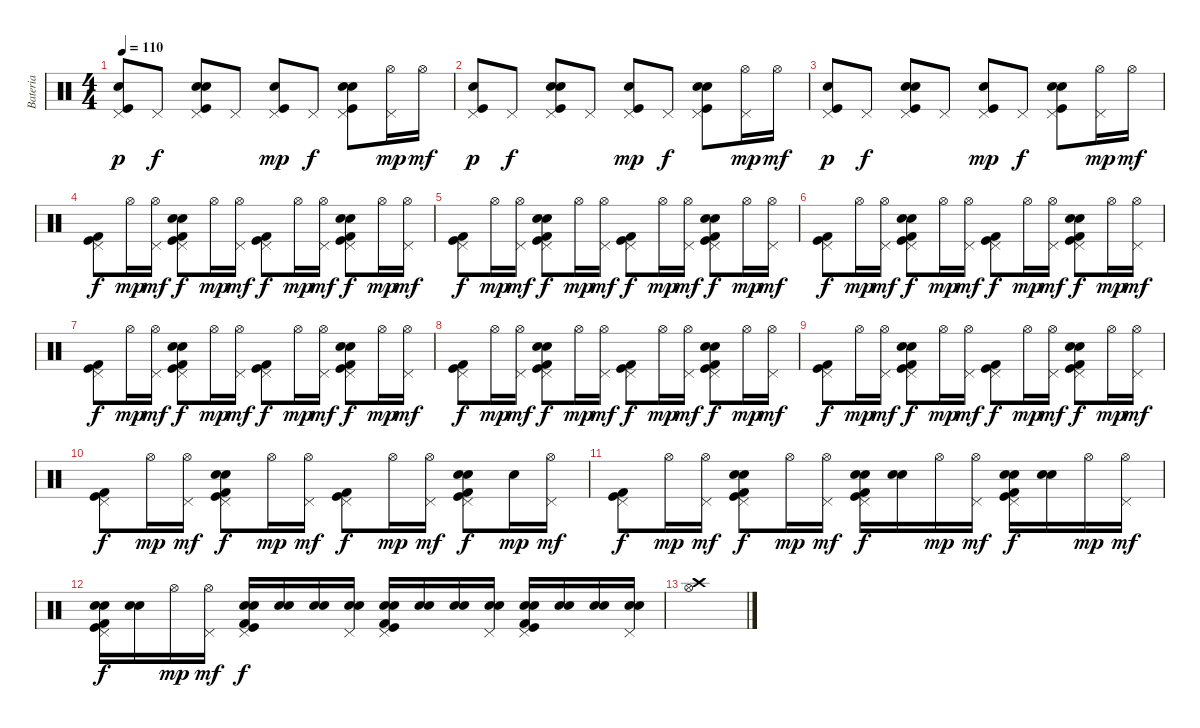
\track ("Bateria" "Bateria") {instrument percussion}
\staff {score}
\articulation defaults
\ts (4 4)
\tempo 110
\clef neutral
\ks c
("Kick (hit)" "Electric Snare (hit)" "Pedal Hi-Hat (hit)").8{dy p} "Pedal Hi-Hat (hit)".8{dy f} ("Kick (hit)" "Electric Snare (hit)" "Snare (hit) 2" "Pedal Hi-Hat (hit)").8 "Pedal Hi-Hat (hit)".8 ("Kick (hit)" "Electric Snare (hit)" "Pedal Hi-Hat (hit)").8{dy mp} "Pedal Hi-Hat (hit)".8{dy f} ("Kick (hit)" "Electric Snare (hit)" "Snare (hit) 2" "Pedal Hi-Hat (hit)").8 ("Pedal Hi-Hat (hit)" "Hi-Hat (open)").16{dy mp} "Hi-Hat (open)".16{dy mf} |
("Kick (hit)" "Electric Snare (hit)" "Pedal Hi-Hat (hit)").8{dy p} "Pedal Hi-Hat (hit)".8{dy f} ("Kick (hit)" "Electric Snare (hit)" "Snare (hit) 2" "Pedal Hi-Hat (hit)").8 "Pedal Hi-Hat (hit)".8 ("Kick (hit)" "Electric Snare (hit)" "Pedal Hi-Hat (hit)").8{dy mp} "Pedal Hi-Hat (hit)".8{dy f} ("Kick (hit)" "Electric Snare (hit)" "Snare (hit) 2" "Pedal Hi-Hat (hit)").8 ("Pedal Hi-Hat (hit)" "Hi-Hat (open)").16{dy mp} "Hi-Hat (open)".16{dy mf} |
("Kick (hit)" "Electric Snare (hit)" "Pedal Hi-Hat (hit)").8{dy p} "Pedal Hi-Hat (hit)".8{dy f} ("Kick (hit)" "Electric Snare (hit)" "Snare (hit) 2" "Pedal Hi-Hat (hit)").8 "Pedal Hi-Hat (hit)".8 ("Kick (hit)" "Electric Snare (hit)" "Pedal Hi-Hat (hit)").8{dy mp} "Pedal Hi-Hat (hit)".8{dy f} ("Kick (hit)" "Electric Snare (hit)" "Snare (hit) 2" "Pedal Hi-Hat (hit)").8 ("Pedal Hi-Hat (hit)" "Hi-Hat (open)").16{dy mp} "Hi-Hat (open)".16{dy mf} |
("Kick (hit)" "Kick (hit) 2" "Pedal Hi-Hat (hit)").8{dy f} "Hi-Hat (open)".16{dy mp} ("Hi-Hat (open)" "Pedal Hi-Hat (hit)").16{dy mf} ("Kick (hit) 2" "Kick (hit)" "Electric Snare (hit)" "Snare (hit) 2" "Pedal Hi-Hat (hit)").8{dy f} "Hi-Hat (open)".16{dy mp} ("Hi-Hat (open)" "Pedal Hi-Hat (hit)").16{dy mf} ("Kick (hit) 2" "Kick (hit)" "Pedal Hi-Hat (hit)").8{dy f} "Hi-Hat (open)".16{dy mp} ("Hi-Hat (open)" "Pedal Hi-Hat (hit)").16{dy mf} ("Kick (hit) 2" "Kick (hit)" "Electric Snare (hit)" "Snare (hit) 2" "Pedal Hi-Hat (hit)").8{dy f} "Hi-Hat (open)".16{dy mp} ("Hi-Hat (open)" "Pedal Hi-Hat (hit)").16{dy mf} |
("Kick (hit)" "Kick (hit) 2" "Pedal Hi-Hat (hit)").8{dy f} "Hi-Hat (open)".16{dy mp} ("Hi-Hat (open)" "Pedal Hi-Hat (hit)").16{dy mf} ("Kick (hit) 2" "Kick (hit)" "Electric Snare (hit)" "Snare (hit) 2" "Pedal Hi-Hat (hit)").8{dy f} "Hi-Hat (open)".16{dy mp} ("Hi-Hat (open)" "Pedal Hi-Hat (hit)").16{dy mf} ("Kick (hit) 2" "Kick (hit)" "Pedal Hi-Hat (hit)").8{dy f} "Hi-Hat (open)".16{dy mp} ("Hi-Hat (open)" "Pedal Hi-Hat (hit)").16{dy mf} ("Kick (hit) 2" "Kick (hit)" "Electric Snare (hit)" "Snare (hit) 2" "Pedal Hi-Hat (hit)").8{dy f} "Hi-Hat (open)".16{dy mp} ("Hi-Hat (open)" "Pedal Hi-Hat (hit)").16{dy mf} |
("Kick (hit)" "Kick (hit) 2" "Pedal Hi-Hat (hit)").8{dy f} "Hi-Hat (open)".16{dy mp} ("Hi-Hat (open)" "Pedal Hi-Hat (hit)").16{dy mf} ("Kick (hit) 2" "Kick (hit)" "Electric Snare (hit)" "Snare (hit) 2" "Pedal Hi-Hat (hit)").8{dy f} "Hi-Hat (open)".16{dy mp} ("Hi-Hat (open)" "Pedal Hi-Hat (hit)").16{dy mf} ("Kick (hit) 2" "Kick (hit)" "Pedal Hi-Hat (hit)").8{dy f} "Hi-Hat (open)".16{dy mp} ("Hi-Hat (open)" "Pedal Hi-Hat (hit)").16{dy mf} ("Kick (hit) 2" "Kick (hit)" "Electric Snare (hit)" "Snare (hit) 2" "Pedal Hi-Hat (hit)").8{dy f} "Hi-Hat (open)".16{dy mp} ("Hi-Hat (open)" "Pedal Hi-Hat (hit)").16{dy mf} |
("Kick (hit)" "Kick (hit) 2" "Pedal Hi-Hat (hit)").8{dy f} "Hi-Hat (open)".16{dy mp} ("Hi-Hat (open)" "Pedal Hi-Hat (hit)").16{dy mf} ("Kick (hit) 2" "Kick (hit)" "Electric Snare (hit)" "Snare (hit) 2" "Pedal Hi-Hat (hit)").8{dy f} "Hi-Hat (open)".16{dy mp} ("Hi-Hat (open)" "Pedal Hi-Hat (hit)").16{dy mf} ("Kick (hit) 2" "Kick (hit)" "Pedal Hi-Hat (hit)").8{dy f} "Hi-Hat (open)".16{dy mp} ("Hi-Hat (open)" "Pedal Hi-Hat (hit)").16{dy mf} ("Kick (hit) 2" "Kick (hit)" "Electric Snare (hit)" "Snare (hit) 2" "Pedal Hi-Hat (hit)").8{dy f} "Hi-Hat (open)".16{dy mp} ("Hi-Hat (open)" "Pedal Hi-Hat (hit)").16{dy mf} |
("Kick (hit)" "Kick (hit) 2" "Pedal Hi-Hat (hit)").8{dy f} "Hi-Hat (open)".16{dy mp} ("Hi-Hat (open)" "Pedal Hi-Hat (hit)").16{dy mf} ("Kick (hit) 2" "Kick (hit)" "Electric Snare (hit)" "Snare (hit) 2" "Pedal Hi-Hat (hit)").8{dy f} "Hi-Hat (open)".16{dy mp} ("Hi-Hat (open)" "Pedal Hi-Hat (hit)").16{dy mf} ("Kick (hit) 2" "Kick (hit)" "Pedal Hi-Hat (hit)").8{dy f} "Hi-Hat (open)".16{dy mp} ("Hi-Hat (open)" "Pedal Hi-Hat (hit)").16{dy mf} ("Kick (hit) 2" "Kick (hit)" "Electric Snare (hit)" "Snare (hit) 2" "Pedal Hi-Hat (hit)").8{dy f} "Hi-Hat (open)".16{dy mp} ("Hi-Hat (open)" "Pedal Hi-Hat (hit)").16{dy mf} |
("Kick (hit)" "Kick (hit) 2" "Pedal Hi-Hat (hit)").8{dy f} "Hi-Hat (open)".16{dy mp} ("Hi-Hat (open)" "Pedal Hi-Hat (hit)").16{dy mf} ("Kick (hit) 2" "Kick (hit)" "Electric Snare (hit)" "Snare (hit) 2" "Pedal Hi-Hat (hit)").8{dy f} "Hi-Hat (open)".16{dy mp} ("Hi-Hat (open)" "Pedal Hi-Hat (hit)").16{dy mf} ("Kick (hit) 2" "Kick (hit)" "Pedal Hi-Hat (hit)").8{dy f} "Hi-Hat (open)".16{dy mp} ("Hi-Hat (open)" "Pedal Hi-Hat (hit)").16{dy mf} ("Kick (hit) 2" "Kick (hit)" "Electric Snare (hit)" "Snare (hit) 2" "Pedal Hi-Hat (hit)").8{dy f} "Hi-Hat (open)".16{dy mp} ("Hi-Hat (open)" "Pedal Hi-Hat (hit)").16{dy mf} |
("Kick (hit)" "Kick (hit) 2" "Pedal Hi-Hat (hit)").8{dy f} "Hi-Hat (open)".16{dy mp} ("Hi-Hat (open)" "Pedal Hi-Hat (hit)").16{dy mf} ("Kick (hit) 2" "Kick (hit)" "Electric Snare (hit)" "Snare (hit) 2" "Pedal Hi-Hat (hit)").8{dy f} "Hi-Hat (open)".16{dy mp} ("Hi-Hat (open)" "Pedal Hi-Hat (hit)").16{dy mf} ("Kick (hit) 2" "Kick (hit)" "Pedal Hi-Hat (hit)").8{dy f} "Hi-Hat (open)".16{dy mp} ("Hi-Hat (open)" "Pedal Hi-Hat (hit)").16{dy mf} ("Kick (hit) 2" "Kick (hit)" "Electric Snare (hit)" "Snare (hit) 2" "Pedal Hi-Hat (hit)").8{dy f} "Snare (hit)".16{dy mp} ("Hi-Hat (open)" "Pedal Hi-Hat (hit)").16{dy mf} |
("Kick (hit)" "Kick (hit) 2" "Pedal Hi-Hat (hit)").8{dy f} "Hi-Hat (open)".16{dy mp} ("Hi-Hat (open)" "Pedal Hi-Hat (hit)").16{dy mf} ("Kick (hit) 2" "Kick (hit)" "Electric Snare (hit)" "Snare (hit) 2" "Pedal Hi-Hat (hit)").8{dy f} "Hi-Hat (open)".16{dy mp} ("Hi-Hat (open)" "Pedal Hi-Hat (hit)").16{dy mf} ("Kick (hit) 2" "Kick (hit)" "Electric Snare (hit)" "Snare (hit) 2" "Pedal Hi-Hat (hit)").16{dy f} ("Electric Snare (hit)" "Snare (hit) 2").16 "Hi-Hat (open)".16{dy mp} ("Hi-Hat (open)" "Pedal Hi-Hat (hit)").16{dy mf} ("Kick (hit) 2" "Kick (hit)" "Electric Snare (hit)" "Snare (hit) 2" "Pedal Hi-Hat (hit)").16{dy f} ("Electric Snare (hit)" "Snare (hit) 2").16 "Hi-Hat (open)".16{dy mp} ("Hi-Hat (open)" "Pedal Hi-Hat (hit)").16{dy mf} |
("Kick (hit)" "Kick (hit) 2" "Electric Snare (hit)" "Snare (hit) 2" "Pedal Hi-Hat (hit)").16{dy f} ("Snare (hit) 2" "Electric Snare (hit)").16 "Hi-Hat (open)".16{dy mp} ("Hi-Hat (open)" "Pedal Hi-Hat (hit)").16{dy mf} ("Kick (hit) 2" "Kick (hit)" "Electric Snare (hit)" "Snare (hit) 2" "Pedal Hi-Hat (hit)").16{dy f} ("Electric Snare (hit)" "Snare (hit) 2").16 ("Electric Snare (hit)" "Snare (hit) 2").16 ("Electric Snare (hit)" "Snare (hit) 2" "Pedal Hi-Hat (hit)").16 ("Kick (hit) 2" "Kick (hit)" "Electric Snare (hit)" "Snare (hit) 2" "Pedal Hi-Hat (hit)").16 ("Electric Snare (hit)" "Snare (hit) 2").16 ("Electric Snare (hit)" "Snare (hit) 2").16 ("Electric Snare (hit)" "Snare (hit) 2" "Pedal Hi-Hat (hit)").16 ("Kick (hit) 2" "Kick (hit)" "Electric Snare (hit)" "Snare (hit) 2" "Pedal Hi-Hat (hit)").16 ("Electric Snare (hit)" "Snare (hit) 2").16 ("Electric Snare (hit)" "Snare (hit) 2").16 ("Electric Snare (hit)" "Snare (hit) 2" "Pedal Hi-Hat (hit)").16 |
("Crash high (hit)" "Hi-Hat (open)").1
